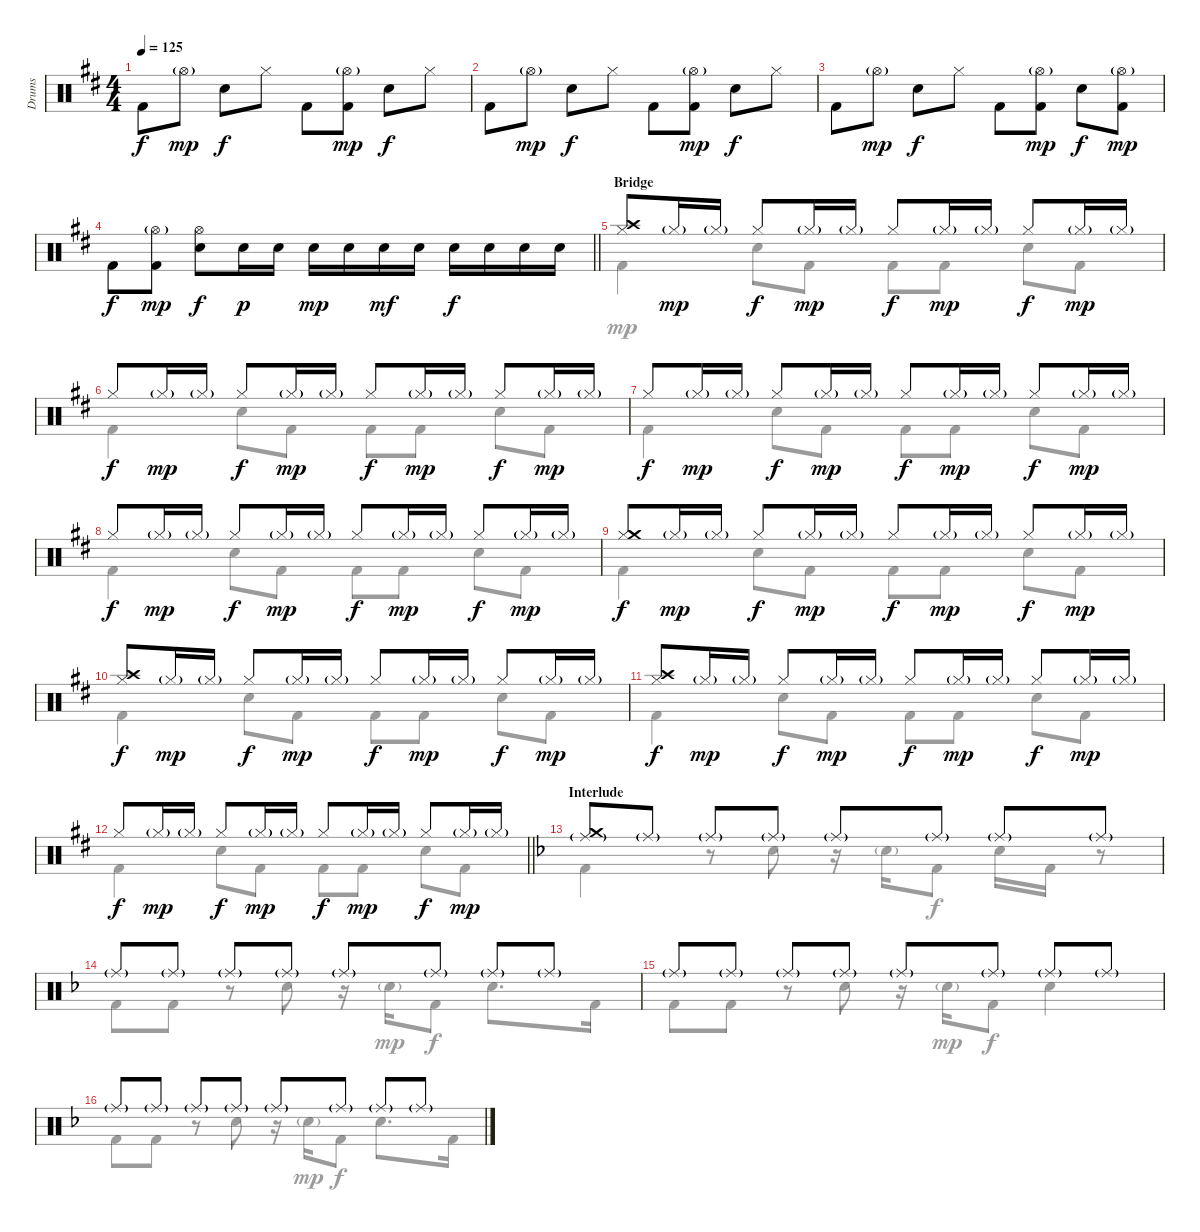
\track ("Drums" "Drums") {instrument percussion}
\staff {score}
\articulation defaults
\voice
\ts (4 4)
\tempo 125
\clef neutral
\ks bminor "Kick (hit) 2".8{dy f} "Hi-Hat (open)"{g}.8{dy mp} "Electric Snare (hit)".8{dy f} "Hi-Hat (closed)".8 "Kick (hit) 2".8
("Hi-Hat (open)"{g} "Kick (hit) 2").8{dy mp} "Electric Snare (hit)".8{dy f} "Hi-Hat (closed)".8 |
"Kick (hit) 2".8 "Hi-Hat (open)"{g}.8{dy mp} "Electric Snare (hit)".8{dy f} "Hi-Hat (closed)".8 "Kick (hit) 2".8 ("Hi-Hat (open)"{g} "Kick (hit) 2").8{dy mp} "Electric Snare (hit)".8{dy f} "Hi-Hat (closed)".8 |
"Kick (hit) 2".8 "Hi-Hat (open)"{g}.8{dy mp} "Electric Snare (hit)".8{dy f} "Hi-Hat (closed)".8 "Kick (hit) 2".8 ("Hi-Hat (open)"{g} "Kick (hit) 2").8{dy mp} "Electric Snare (hit)".8{dy f} ("Hi-Hat (open)"{g} "Kick (hit) 2").8{dy mp} |
\barLineRight lightlight "Kick (hit) 2".8{dy f}
("Hi-Hat (open)"{g} "Kick (hit) 2").8{dy mp} ("Hi-Hat (open)" "Electric Snare (hit)").8{dy f} "Electric Snare (hit)".16{dy p} "Electric Snare (hit)".16 "Electric Snare (hit)".16{dy mp} "Electric Snare (hit)".16 "Electric Snare (hit)".16{dy mf} "Electric Snare (hit)".16 "Electric Snare (hit)".16{dy f} "Electric Snare (hit)".16 "Electric Snare (hit)".16 "Electric Snare (hit)".16 |
\section ("" "Bridge")
("Hi-Hat (closed)" "Crash high (hit)").8 "Hi-Hat (closed)"{g}.16{dy mp} "Hi-Hat (closed)"{g}.16 "Hi-Hat (closed)".8{dy f} "Hi-Hat (closed)"{g}.16{dy mp} "Hi-Hat (closed)"{g}.16 "Hi-Hat (closed)".8{dy f} "Hi-Hat (closed)"{g}.16{dy mp} "Hi-Hat (closed)"{g}.16 "Hi-Hat (closed)".8{dy f} "Hi-Hat (closed)"{g}.16{dy mp} "Hi-Hat (closed)"{g}.16 |
"Hi-Hat (closed)".8{dy f} "Hi-Hat (closed)"{g}.16{dy mp} "Hi-Hat (closed)"{g}.16 "Hi-Hat (closed)".8{dy f} "Hi-Hat (closed)"{g}.16{dy mp} "Hi-Hat (closed)"{g}.16 "Hi-Hat (closed)".8{dy f} "Hi-Hat (closed)"{g}.16{dy mp} "Hi-Hat (closed)"{g}.16 "Hi-Hat (closed)".8{dy f} "Hi-Hat (closed)"{g}.16{dy mp} "Hi-Hat (closed)"{g}.16 |
"Hi-Hat (closed)".8{dy f} "Hi-Hat (closed)"{g}.16{dy mp} "Hi-Hat (closed)"{g}.16 "Hi-Hat (closed)".8{dy f} "Hi-Hat (closed)"{g}.16{dy mp} "Hi-Hat (closed)"{g}.16 "Hi-Hat (closed)".8{dy f} "Hi-Hat (closed)"{g}.16{dy mp} "Hi-Hat (closed)"{g}.16 "Hi-Hat (closed)".8{dy f} "Hi-Hat (closed)"{g}.16{dy mp} "Hi-Hat (closed)"{g}.16 |
"Hi-Hat (closed)".8{dy f} "Hi-Hat (closed)"{g}.16{dy mp} "Hi-Hat (closed)"{g}.16 "Hi-Hat (closed)".8{dy f} "Hi-Hat (closed)"{g}.16{dy mp} "Hi-Hat (closed)"{g}.16 "Hi-Hat (closed)".8{dy f} "Hi-Hat (closed)"{g}.16{dy mp} "Hi-Hat (closed)"{g}.16 "Hi-Hat (closed)".8{dy f} "Hi-Hat (closed)"{g}.16{dy mp} "Hi-Hat (closed)"{g}.16 |
("Hi-Hat (closed)" "Crash medium (hit)").8{dy f} "Hi-Hat (closed)"{g}.16{dy mp} "Hi-Hat (closed)"{g}.16 "Hi-Hat (closed)".8{dy f} "Hi-Hat (closed)"{g}.16{dy mp} "Hi-Hat (closed)"{g}.16 "Hi-Hat (closed)".8{dy f} "Hi-Hat (closed)"{g}.16{dy mp} "Hi-Hat (closed)"{g}.16 "Hi-Hat (closed)".8{dy f} "Hi-Hat (closed)"{g}.16{dy mp} "Hi-Hat (closed)"{g}.16 |
("Hi-Hat (closed)" "Crash high (hit)").8{dy f} "Hi-Hat (closed)"{g}.16{dy mp} "Hi-Hat (closed)"{g}.16 "Hi-Hat (closed)".8{dy f} "Hi-Hat (closed)"{g}.16{dy mp} "Hi-Hat (closed)"{g}.16 "Hi-Hat (closed)".8{dy f} "Hi-Hat (closed)"{g}.16{dy mp} "Hi-Hat (closed)"{g}.16 "Hi-Hat (closed)".8{dy f} "Hi-Hat (closed)"{g}.16{dy mp} "Hi-Hat (closed)"{g}.16 |
("Hi-Hat (closed)" "Crash high (hit)").8{dy f} "Hi-Hat (closed)"{g}.16{dy mp} "Hi-Hat (closed)"{g}.16 "Hi-Hat (closed)".8{dy f} "Hi-Hat (closed)"{g}.16{dy mp} "Hi-Hat (closed)"{g}.16 "Hi-Hat (closed)".8{dy f} "Hi-Hat (closed)"{g}.16{dy mp} "Hi-Hat (closed)"{g}.16 "Hi-Hat (closed)".8{dy f} "Hi-Hat (closed)"{g}.16{dy mp} "Hi-Hat (closed)"{g}.16 |
\barLineRight lightlight "Hi-Hat (closed)".8{dy f} "Hi-Hat (closed)"{g}.16{dy mp} "Hi-Hat (closed)"{g}.16 "Hi-Hat (closed)".8{dy f} "Hi-Hat (closed)"{g}.16{dy mp} "Hi-Hat (closed)"{g}.16 "Hi-Hat (closed)".8{dy f} "Hi-Hat (closed)"{g}.16{dy mp} "Hi-Hat (closed)"{g}.16 "Hi-Hat (closed)".8{dy f} "Hi-Hat (closed)"{g}.16{dy mp} "Hi-Hat (closed)"{g}.16
|
\section ("" "Interlude")
\ks dminor
("Ride (middle)"{g} "Crash medium (hit)").8 "Ride (middle)"{g}.8 "Ride (middle)"{g}.8 "Ride (middle)"{g}.8 "Ride (middle)"{g}.8 "Ride (middle)"{g}.8 "Ride (middle)"{g}.8 "Ride (middle)"{g}.8 |
"Ride (middle)"{g}.8 "Ride (middle)"{g}.8 "Ride (middle)"{g}.8 "Ride (middle)"{g}.8 "Ride (middle)"{g}.8 "Ride (middle)"{g}.8 "Ride (middle)"{g}.8 "Ride (middle)"{g}.8 |
"Ride (middle)"{g}.8 "Ride (middle)"{g}.8 "Ride (middle)"{g}.8 "Ride (middle)"{g}.8 "Ride (middle)"{g}.8 "Ride (middle)"{g}.8 "Ride (middle)"{g}.8 "Ride (middle)"{g}.8 |
"Ride (middle)"{g}.8 "Ride (middle)"{g}.8 "Ride (middle)"{g}.8 "Ride (middle)"{g}.8 "Ride (middle)"{g}.8 "Ride (middle)"{g}.8 "Ride (middle)"{g}.8 "Ride (middle)"{g}.8
\voice
\clef neutral
\ottava regular
\simile none
\ks bminor
|
|
|
\barLineRight lightlight
|
"Kick (hit) 2".4 "Electric Snare (hit)".8 "Kick (hit) 2".8 "Kick (hit) 2".8 "Kick (hit) 2".8 "Electric Snare (hit)".8 "Kick (hit) 2".8 |
"Kick (hit) 2".4 "Electric Snare (hit)".8 "Kick (hit) 2".8 "Kick (hit) 2".8 "Kick (hit) 2".8 "Electric Snare (hit)".8 "Kick (hit) 2".8 |
"Kick (hit) 2".4 "Electric Snare (hit)".8 "Kick (hit) 2".8 "Kick (hit) 2".8 "Kick (hit) 2".8 "Electric Snare (hit)".8 "Kick (hit) 2".8 |
"Kick (hit) 2".4 "Electric Snare (hit)".8 "Kick (hit) 2".8 "Kick (hit) 2".8 "Kick (hit) 2".8 "Electric Snare (hit)".8 "Kick (hit) 2".8 |
"Kick (hit) 2".4 "Electric Snare (hit)".8 "Kick (hit) 2".8 "Kick (hit) 2".8 "Kick (hit) 2".8 "Electric Snare (hit)".8 "Kick (hit) 2".8 |
"Kick (hit) 2".4 "Electric Snare (hit)".8 "Kick (hit) 2".8 "Kick (hit) 2".8 "Kick (hit) 2".8 "Electric Snare (hit)".8 "Kick (hit) 2".8 |
"Kick (hit) 2".4 "Electric Snare (hit)".8 "Kick (hit) 2".8 "Kick (hit) 2".8 "Kick (hit) 2".8 "Electric Snare (hit)".8 "Kick (hit) 2".8 |
\barLineRight lightlight "Kick (hit) 2".4 "Electric Snare (hit)".8 "Kick (hit) 2".8 "Kick (hit) 2".8 "Kick (hit) 2".8 "Electric Snare (hit)".8 "Kick (hit) 2".8
|
\ks dminor "Kick (hit) 2".4
r.8 "Electric Snare (hit)".8 r.16 "Electric Snare (hit)"{g}.16{dy mp} "Kick (hit) 2".8{dy f} "Electric Snare (hit)".16 "Kick (hit) 2".16 r.8 |
"Kick (hit) 2".8 "Kick (hit) 2".8 r.8 "Electric Snare (hit)".8 r.16 "Electric Snare (hit)"{g}.16{dy mp} "Kick (hit) 2".8{dy f} "Electric Snare (hit)".8{d} "Kick (hit) 2".16 |
"Kick (hit) 2".8 "Kick (hit) 2".8 r.8 "Electric Snare (hit)".8 r.16 "Electric Snare (hit)"{g}.16{dy mp} "Kick (hit) 2".8{dy f} "Electric Snare (hit)".4 |
"Kick (hit) 2".8 "Kick (hit) 2".8 r.8 "Electric Snare (hit)".8 r.16 "Electric Snare (hit)"{g}.16{dy mp} "Kick (hit) 2".8{dy f} "Electric Snare (hit)".8{d} "Kick (hit) 2".16
